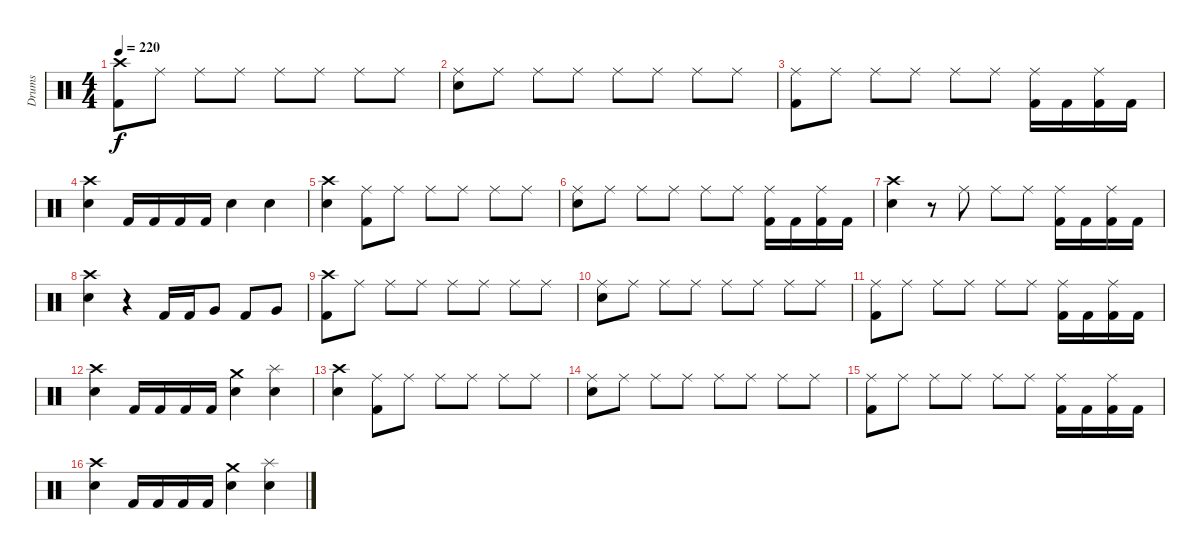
\track ("Drums" "Drums") {instrument percussion}
\staff {score}
\articulation defaults
\ts (4 4)
\tempo 220
\clef neutral
\ks c
("Crash high (hit)" "Kick (hit) 2").8{dy f} "Ride (middle)".8 "Ride (middle)".8 "Ride (middle)".8 "Ride (middle)".8 "Ride (middle)".8 "Ride (middle)".8 "Ride (middle)".8 |
("Ride (middle)" "Snare (hit) 2").8 "Ride (middle)".8 "Ride (middle)".8 "Ride (middle)".8 "Ride (middle)".8 "Ride (middle)".8 "Ride (middle)".8 "Ride (middle)".8 |
("Ride (middle)" "Kick (hit) 2").8 "Ride (middle)".8 "Ride (middle)".8 "Ride (middle)".8 "Ride (middle)".8 "Ride (middle)".8 ("Ride (middle)" "Kick (hit) 2").16 "Kick (hit) 2".16 ("Ride (middle)" "Kick (hit) 2").16 "Kick (hit) 2".16 |
("Crash high (hit)" "Snare (hit) 2").4 "Kick (hit) 2".16 "Kick (hit) 2".16 "Kick (hit) 2".16 "Kick (hit) 2".16 "Snare (hit) 2".4 "Snare (hit) 2".4 |
("Crash high (hit)" "Snare (hit) 2").4 ("Ride (middle)" "Kick (hit) 2").8 "Ride (middle)".8 "Ride (middle)".8 "Ride (middle)".8 "Ride (middle)".8 "Ride (middle)".8 |
("Ride (middle)" "Snare (hit) 2").8 "Ride (middle)".8 "Ride (middle)".8 "Ride (middle)".8 "Ride (middle)".8 "Ride (middle)".8 ("Ride (middle)" "Kick (hit) 2").16 "Kick (hit) 2".16 ("Ride (middle)" "Kick (hit) 2").16 "Kick (hit) 2".16 |
("Crash high (hit)" "Snare (hit) 2").4 r.8 "Ride (middle)".8 "Ride (middle)".8 "Ride (middle)".8 ("Ride (middle)" "Kick (hit) 2").16 "Kick (hit) 2".16 ("Ride (middle)" "Kick (hit) 2").16 "Kick (hit) 2".16 |
("Crash high (hit)" "Snare (hit) 2").4 r.4 "Kick (hit) 2".16 "Kick (hit) 2".16 "Very Low Tom (hit)".8 "Kick (hit) 2".8 "Very Low Tom (hit)".8 |
("Crash high (hit)" "Kick (hit) 2").8 "Ride (middle)".8 "Ride (middle)".8 "Ride (middle)".8 "Ride (middle)".8 "Ride (middle)".8 "Ride (middle)".8 "Ride (middle)".8 |
("Ride (middle)" "Snare (hit) 2").8 "Ride (middle)".8 "Ride (middle)".8 "Ride (middle)".8 "Ride (middle)".8 "Ride (middle)".8 "Ride (middle)".8 "Ride (middle)".8 |
("Ride (middle)" "Kick (hit) 2").8 "Ride (middle)".8 "Ride (middle)".8 "Ride (middle)".8 "Ride (middle)".8 "Ride (middle)".8 ("Ride (middle)" "Kick (hit) 2").16 "Kick (hit) 2".16 ("Ride (middle)" "Kick (hit) 2").16 "Kick (hit) 2".16 |
("Crash high (hit)" "Snare (hit) 2").4 "Kick (hit) 2".16 "Kick (hit) 2".16 "Kick (hit) 2".16 "Kick (hit) 2".16 ("Crash medium (hit)" "Snare (hit) 2").4 ("Splash (hit)" "Snare (hit) 2").4 |
("Crash high (hit)" "Snare (hit) 2").4 ("Ride (middle)" "Kick (hit) 2").8 "Ride (middle)".8 "Ride (middle)".8 "Ride (middle)".8 "Ride (middle)".8 "Ride (middle)".8 |
("Ride (middle)" "Snare (hit) 2").8 "Ride (middle)".8 "Ride (middle)".8 "Ride (middle)".8 "Ride (middle)".8 "Ride (middle)".8 "Ride (middle)".8 "Ride (middle)".8 |
("Ride (middle)" "Kick (hit) 2").8 "Ride (middle)".8 "Ride (middle)".8 "Ride (middle)".8 "Ride (middle)".8 "Ride (middle)".8 ("Ride (middle)" "Kick (hit) 2").16 "Kick (hit) 2".16 ("Ride (middle)" "Kick (hit) 2").16 "Kick (hit) 2".16 |
("Crash high (hit)" "Snare (hit) 2").4 "Kick (hit) 2".16 "Kick (hit) 2".16 "Kick (hit) 2".16 "Kick (hit) 2".16 ("Crash medium (hit)" "Snare (hit) 2").4 ("Splash (hit)" "Snare (hit) 2").4
